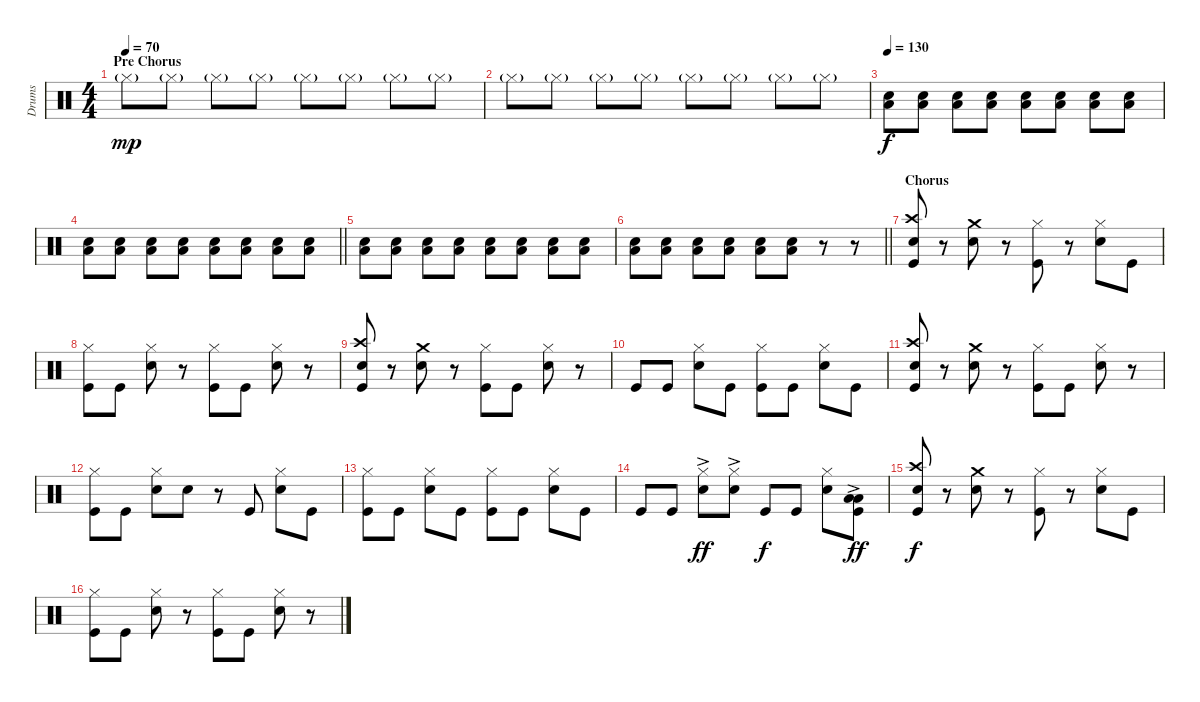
\track ("Drums" "Drums") {instrument percussion}
\staff {score}
\articulation defaults
\ts (4 4)
\section ("" "Pre Chorus")
\tempo 70
\clef neutral
\ks c "Hi-Hat (closed)"{g}.8{dy mp} "Hi-Hat (closed)"{g}.8 "Hi-Hat (closed)"{g}.8 "Hi-Hat (closed)"{g}.8 "Hi-Hat (closed)"{g}.8 "Hi-Hat (closed)"{g}.8 "Hi-Hat (closed)"{g}.8 "Hi-Hat (closed)"{g}.8
|
"Hi-Hat (closed)"{g}.8 "Hi-Hat (closed)"{g}.8 "Hi-Hat (closed)"{g}.8 "Hi-Hat (closed)"{g}.8 "Hi-Hat (closed)"{g}.8 "Hi-Hat (closed)"{g}.8 "Hi-Hat (closed)"{g}.8 "Hi-Hat (closed)"{g}.8 |
\tempo 130
("Low Floor Tom (hit)" "Electric Snare (hit)").8{dy f} ("Low Floor Tom (hit)" "Electric Snare (hit)").8 ("Low Floor Tom (hit)" "Electric Snare (hit)").8 ("Low Floor Tom (hit)" "Electric Snare (hit)").8 ("Low Floor Tom (hit)" "Electric Snare (hit)").8 ("Low Floor Tom (hit)" "Electric Snare (hit)").8 ("Low Floor Tom (hit)" "Electric Snare (hit)").8 ("Low Floor Tom (hit)" "Electric Snare (hit)").8 |
\barLineRight lightlight
("Low Floor Tom (hit)" "Electric Snare (hit)").8 ("Low Floor Tom (hit)" "Electric Snare (hit)").8 ("Low Floor Tom (hit)" "Electric Snare (hit)").8 ("Low Floor Tom (hit)" "Electric Snare (hit)").8 ("Low Floor Tom (hit)" "Electric Snare (hit)").8 ("Low Floor Tom (hit)" "Electric Snare (hit)").8 ("Low Floor Tom (hit)" "Electric Snare (hit)").8 ("Low Floor Tom (hit)" "Electric Snare (hit)").8 |
\section ("" "")
("Low Floor Tom (hit)" "Electric Snare (hit)").8 ("Low Floor Tom (hit)" "Electric Snare (hit)").8 ("Low Floor Tom (hit)" "Electric Snare (hit)").8 ("Low Floor Tom (hit)" "Electric Snare (hit)").8 ("Low Floor Tom (hit)" "Electric Snare (hit)").8 ("Low Floor Tom (hit)" "Electric Snare (hit)").8 ("Low Floor Tom (hit)" "Electric Snare (hit)").8 ("Low Floor Tom (hit)" "Electric Snare (hit)").8 |
\barLineRight lightlight
("Low Floor Tom (hit)" "Electric Snare (hit)").8 ("Low Floor Tom (hit)" "Electric Snare (hit)").8 ("Low Floor Tom (hit)" "Electric Snare (hit)").8 ("Low Floor Tom (hit)" "Electric Snare (hit)").8 ("Low Floor Tom (hit)" "Electric Snare (hit)").8 ("Low Floor Tom (hit)" "Electric Snare (hit)").8 r.8 r.8 |
\section ("" "Chorus")
("Crash high (hit)" "Electric Snare (hit)" "Kick (hit)").8 r.8 ("Crash medium (hit)" "Electric Snare (hit)").8 r.8 ("Hi-Hat (closed)" "Kick (hit)").8 r.8 ("Hi-Hat (closed)" "Electric Snare (hit)").8 "Kick (hit)".8 |
("Hi-Hat (closed)" "Kick (hit)").8 "Kick (hit)".8 ("Hi-Hat (closed)" "Electric Snare (hit)").8 r.8 ("Hi-Hat (closed)" "Kick (hit)").8 "Kick (hit)".8 ("Hi-Hat (closed)" "Electric Snare (hit)").8 r.8 |
("Crash high (hit)" "Electric Snare (hit)" "Kick (hit)").8 r.8 ("Crash medium (hit)" "Electric Snare (hit)").8 r.8 ("Hi-Hat (closed)" "Kick (hit)").8 "Kick (hit)".8 ("Hi-Hat (closed)" "Electric Snare (hit)").8 r.8 |
"Kick (hit)".8 "Kick (hit)".8 ("Hi-Hat (closed)" "Electric Snare (hit)").8 "Kick (hit)".8 ("Hi-Hat (closed)" "Kick (hit)").8 "Kick (hit)".8 ("Hi-Hat (closed)" "Electric Snare (hit)").8 "Kick (hit)".8 |
("Crash high (hit)" "Kick (hit)" "Electric Snare (hit)").8 r.8 ("Crash medium (hit)" "Electric Snare (hit)").8 r.8 ("Hi-Hat (closed)" "Kick (hit)").8 "Kick (hit)".8 ("Hi-Hat (closed)" "Electric Snare (hit)").8 r.8 |
("Hi-Hat (closed)" "Kick (hit)").8 "Kick (hit)".8 ("Hi-Hat (closed)" "Electric Snare (hit)").8 "Electric Snare (hit)".8 r.8 "Kick (hit)".8 ("Hi-Hat (closed)" "Electric Snare (hit)").8 "Kick (hit)".8 |
("Hi-Hat (closed)" "Kick (hit)").8 "Kick (hit)".8 ("Hi-Hat (closed)" "Electric Snare (hit)").8 "Kick (hit)".8 ("Hi-Hat (closed)" "Kick (hit)").8 "Kick (hit)".8 ("Hi-Hat (closed)" "Electric Snare (hit)").8 "Kick (hit)".8 |
"Kick (hit)".8 "Kick (hit)".8 ("Hi-Hat (closed)"{ac} "Electric Snare (hit)"{ac}).8{dy ff} ("Hi-Hat (closed)"{ac} "Electric Snare (hit)"{ac}).8 "Kick (hit)".8{dy f} "Kick (hit)".8 ("Hi-Hat (closed)" "Electric Snare (hit)").8 ("Kick (hit)"{ac} "Low Floor Tom (hit)"{ac} "Low Tom (hit)"{ac}).8{dy ff} |
("Crash high (hit)" "Electric Snare (hit)" "Kick (hit)").8{dy f} r.8 ("Crash medium (hit)" "Electric Snare (hit)").8 r.8 ("Hi-Hat (closed)" "Kick (hit)").8 r.8 ("Hi-Hat (closed)" "Electric Snare (hit)").8 "Kick (hit)".8 |
("Hi-Hat (closed)" "Kick (hit)").8 "Kick (hit)".8 ("Hi-Hat (closed)" "Electric Snare (hit)").8 r.8 ("Hi-Hat (closed)" "Kick (hit)").8 "Kick (hit)".8 ("Hi-Hat (closed)" "Electric Snare (hit)").8 r.8
